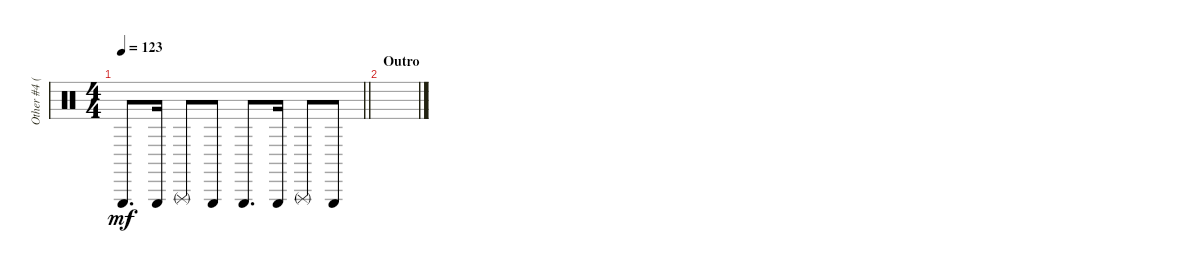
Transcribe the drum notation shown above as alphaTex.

\track ("Other #4 (Triangle)" "Other #4 (") {instrument percussion}
\staff {score}
\articulation defaults
\ts (4 4)
\tempo 123
\clef neutral
\barLineRight lightlight
\ks c "Triangle (hit)".8{d dy mf} "Triangle (hit)".16 "Triangle (rnute)".8 "Triangle (hit)".8 "Triangle (hit)".8{d} "Triangle (hit)".16 "Triangle (rnute)".8 "Triangle (hit)".8
|
\section ("" "Outro")
